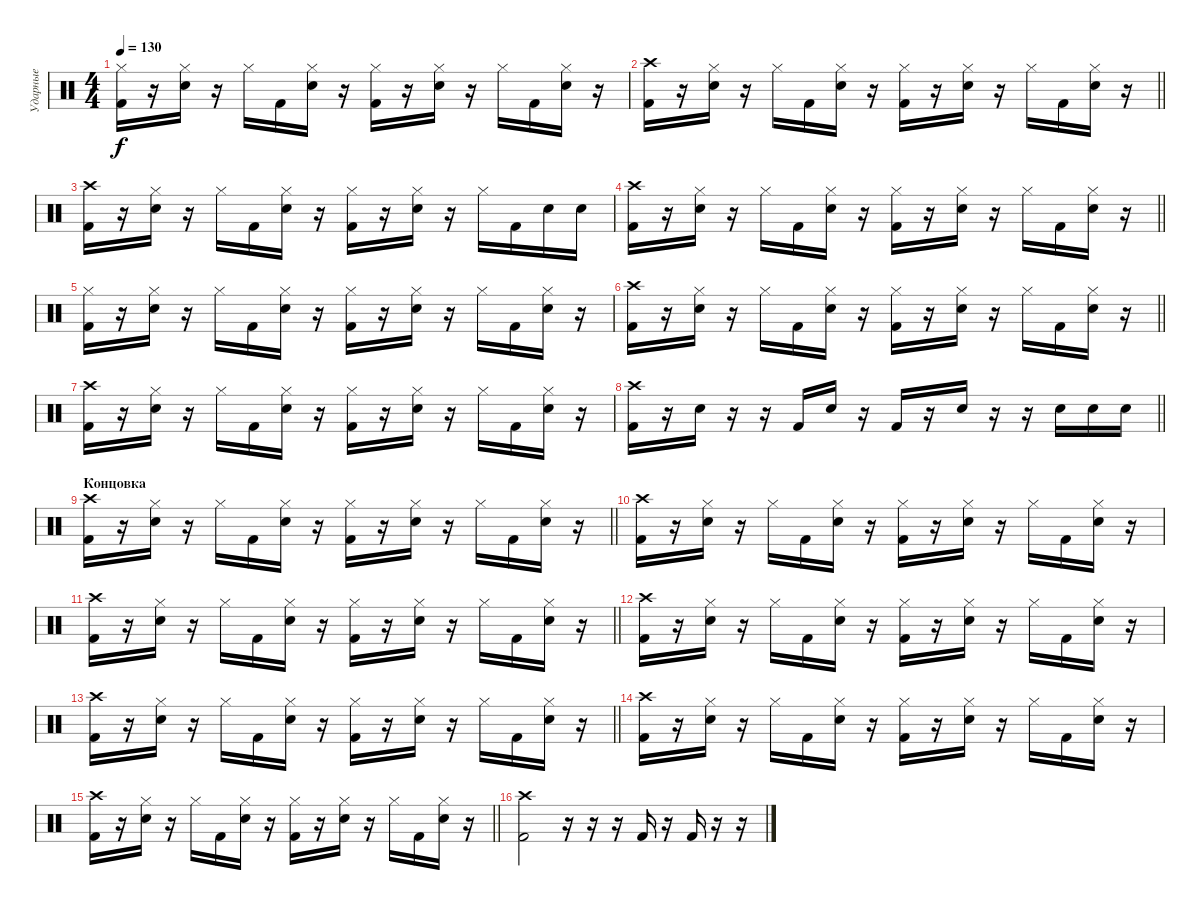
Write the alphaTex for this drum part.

\track ("Ударные" "Ударные") {instrument percussion}
\staff {score}
\articulation defaults
\ts (4 4)
\tempo 130
\clef neutral
\ks c
("Kick (hit) 2" "Hi-Hat (closed)").16{dy f} r.16 ("Electric Snare (hit)" "Hi-Hat (closed)").16 r.16 "Hi-Hat (closed)".16 "Kick (hit) 2".16 ("Electric Snare (hit)" "Hi-Hat (closed)").16 r.16 ("Kick (hit) 2" "Hi-Hat (closed)").16 r.16 ("Electric Snare (hit)" "Hi-Hat (closed)").16 r.16 "Hi-Hat (closed)".16 "Kick (hit) 2".16 ("Electric Snare (hit)" "Hi-Hat (closed)").16 r.16 |
\barLineRight lightlight
("Kick (hit) 2" "Crash high (hit)").16 r.16 ("Electric Snare (hit)" "Hi-Hat (closed)").16 r.16 "Hi-Hat (closed)".16 "Kick (hit) 2".16 ("Electric Snare (hit)" "Hi-Hat (closed)").16 r.16 ("Kick (hit) 2" "Hi-Hat (closed)").16 r.16 ("Electric Snare (hit)" "Hi-Hat (closed)").16 r.16 "Hi-Hat (closed)".16 "Kick (hit) 2".16 ("Electric Snare (hit)" "Hi-Hat (closed)").16 r.16 |
("Kick (hit) 2" "Crash high (hit)").16 r.16 ("Electric Snare (hit)" "Hi-Hat (closed)").16 r.16 "Hi-Hat (closed)".16 "Kick (hit) 2".16 ("Electric Snare (hit)" "Hi-Hat (closed)").16 r.16 ("Kick (hit) 2" "Hi-Hat (closed)").16 r.16 ("Electric Snare (hit)" "Hi-Hat (closed)").16 r.16 "Hi-Hat (closed)".16 "Kick (hit) 2".16 "Electric Snare (hit)".16 "Electric Snare (hit)".16 |
\barLineRight lightlight
("Kick (hit) 2" "Crash high (hit)").16 r.16 ("Electric Snare (hit)" "Hi-Hat (closed)").16 r.16 "Hi-Hat (closed)".16 "Kick (hit) 2".16 ("Electric Snare (hit)" "Hi-Hat (closed)").16 r.16 ("Kick (hit) 2" "Hi-Hat (closed)").16 r.16 ("Electric Snare (hit)" "Hi-Hat (closed)").16 r.16 "Hi-Hat (closed)".16 "Kick (hit) 2".16 ("Electric Snare (hit)" "Hi-Hat (closed)").16 r.16 |
("Kick (hit) 2" "Hi-Hat (closed)").16 r.16 ("Electric Snare (hit)" "Hi-Hat (closed)").16 r.16 "Hi-Hat (closed)".16 "Kick (hit) 2".16 ("Electric Snare (hit)" "Hi-Hat (closed)").16 r.16 ("Kick (hit) 2" "Hi-Hat (closed)").16 r.16 ("Electric Snare (hit)" "Hi-Hat (closed)").16 r.16 "Hi-Hat (closed)".16 "Kick (hit) 2".16 ("Electric Snare (hit)" "Hi-Hat (closed)").16 r.16 |
\barLineRight lightlight
("Kick (hit) 2" "Crash high (hit)").16 r.16 ("Electric Snare (hit)" "Hi-Hat (closed)").16 r.16 "Hi-Hat (closed)".16 "Kick (hit) 2".16 ("Electric Snare (hit)" "Hi-Hat (closed)").16 r.16 ("Kick (hit) 2" "Hi-Hat (closed)").16 r.16 ("Electric Snare (hit)" "Hi-Hat (closed)").16 r.16 "Hi-Hat (closed)".16 "Kick (hit) 2".16 ("Electric Snare (hit)" "Hi-Hat (closed)").16 r.16 |
("Kick (hit) 2" "Crash high (hit)").16 r.16 ("Electric Snare (hit)" "Hi-Hat (closed)").16 r.16 "Hi-Hat (closed)".16 "Kick (hit) 2".16 ("Electric Snare (hit)" "Hi-Hat (closed)").16 r.16 ("Kick (hit) 2" "Hi-Hat (closed)").16 r.16 ("Electric Snare (hit)" "Hi-Hat (closed)").16 r.16 "Hi-Hat (closed)".16 "Kick (hit) 2".16 ("Electric Snare (hit)" "Hi-Hat (closed)").16 r.16 |
\barLineRight lightlight
("Kick (hit) 2" "Crash high (hit)").16 r.16 "Electric Snare (hit)".16 r.16 r.16 "Kick (hit) 2".16 "Electric Snare (hit)".16 r.16 "Kick (hit) 2".16 r.16 "Electric Snare (hit)".16 r.16 r.16 "Electric Snare (hit)".16 "Electric Snare (hit)".16 "Electric Snare (hit)".16 |
\section ("" "Концовка")
\barLineRight lightlight
("Kick (hit) 2" "Crash high (hit)").16 r.16 ("Electric Snare (hit)" "Hi-Hat (closed)").16 r.16 "Hi-Hat (closed)".16 "Kick (hit) 2".16 ("Electric Snare (hit)" "Hi-Hat (closed)").16 r.16 ("Kick (hit) 2" "Hi-Hat (closed)").16 r.16 ("Electric Snare (hit)" "Hi-Hat (closed)").16 r.16 "Hi-Hat (closed)".16 "Kick (hit) 2".16 ("Electric Snare (hit)" "Hi-Hat (closed)").16 r.16 |
("Kick (hit) 2" "Crash high (hit)").16 r.16 ("Electric Snare (hit)" "Hi-Hat (closed)").16 r.16 "Hi-Hat (closed)".16 "Kick (hit) 2".16 ("Electric Snare (hit)" "Hi-Hat (closed)").16 r.16 ("Kick (hit) 2" "Hi-Hat (closed)").16 r.16 ("Electric Snare (hit)" "Hi-Hat (closed)").16 r.16 "Hi-Hat (closed)".16 "Kick (hit) 2".16 ("Electric Snare (hit)" "Hi-Hat (closed)").16 r.16 |
\barLineRight lightlight
("Kick (hit) 2" "Crash high (hit)").16 r.16 ("Electric Snare (hit)" "Hi-Hat (closed)").16 r.16 "Hi-Hat (closed)".16 "Kick (hit) 2".16 ("Electric Snare (hit)" "Hi-Hat (closed)").16 r.16 ("Kick (hit) 2" "Hi-Hat (closed)").16 r.16 ("Electric Snare (hit)" "Hi-Hat (closed)").16 r.16 "Hi-Hat (closed)".16 "Kick (hit) 2".16 ("Electric Snare (hit)" "Hi-Hat (closed)").16 r.16 |
("Kick (hit) 2" "Crash high (hit)").16 r.16 ("Electric Snare (hit)" "Hi-Hat (closed)").16 r.16 "Hi-Hat (closed)".16 "Kick (hit) 2".16 ("Electric Snare (hit)" "Hi-Hat (closed)").16 r.16 ("Kick (hit) 2" "Hi-Hat (closed)").16 r.16 ("Electric Snare (hit)" "Hi-Hat (closed)").16 r.16 "Hi-Hat (closed)".16 "Kick (hit) 2".16 ("Electric Snare (hit)" "Hi-Hat (closed)").16 r.16 |
\barLineRight lightlight
("Kick (hit) 2" "Crash high (hit)").16 r.16 ("Electric Snare (hit)" "Hi-Hat (closed)").16 r.16 "Hi-Hat (closed)".16 "Kick (hit) 2".16 ("Electric Snare (hit)" "Hi-Hat (closed)").16 r.16 ("Kick (hit) 2" "Hi-Hat (closed)").16 r.16 ("Electric Snare (hit)" "Hi-Hat (closed)").16 r.16 "Hi-Hat (closed)".16 "Kick (hit) 2".16 ("Electric Snare (hit)" "Hi-Hat (closed)").16 r.16 |
("Kick (hit) 2" "Crash high (hit)").16 r.16 ("Electric Snare (hit)" "Hi-Hat (closed)").16 r.16 "Hi-Hat (closed)".16 "Kick (hit) 2".16 ("Electric Snare (hit)" "Hi-Hat (closed)").16 r.16 ("Kick (hit) 2" "Hi-Hat (closed)").16 r.16 ("Electric Snare (hit)" "Hi-Hat (closed)").16 r.16 "Hi-Hat (closed)".16 "Kick (hit) 2".16 ("Electric Snare (hit)" "Hi-Hat (closed)").16 r.16 |
\barLineRight lightlight
("Kick (hit) 2" "Crash high (hit)").16 r.16 ("Electric Snare (hit)" "Hi-Hat (closed)").16 r.16 "Hi-Hat (closed)".16 "Kick (hit) 2".16 ("Electric Snare (hit)" "Hi-Hat (closed)").16 r.16 ("Kick (hit) 2" "Hi-Hat (closed)").16 r.16 ("Electric Snare (hit)" "Hi-Hat (closed)").16 r.16 "Hi-Hat (closed)".16 "Kick (hit) 2".16 ("Electric Snare (hit)" "Hi-Hat (closed)").16 r.16 |
("Kick (hit) 2" "Crash high (hit)").2 r.16 r.16 r.16 "Kick (hit) 2".16 r.16 "Kick (hit) 2".16 r.16 r.16
